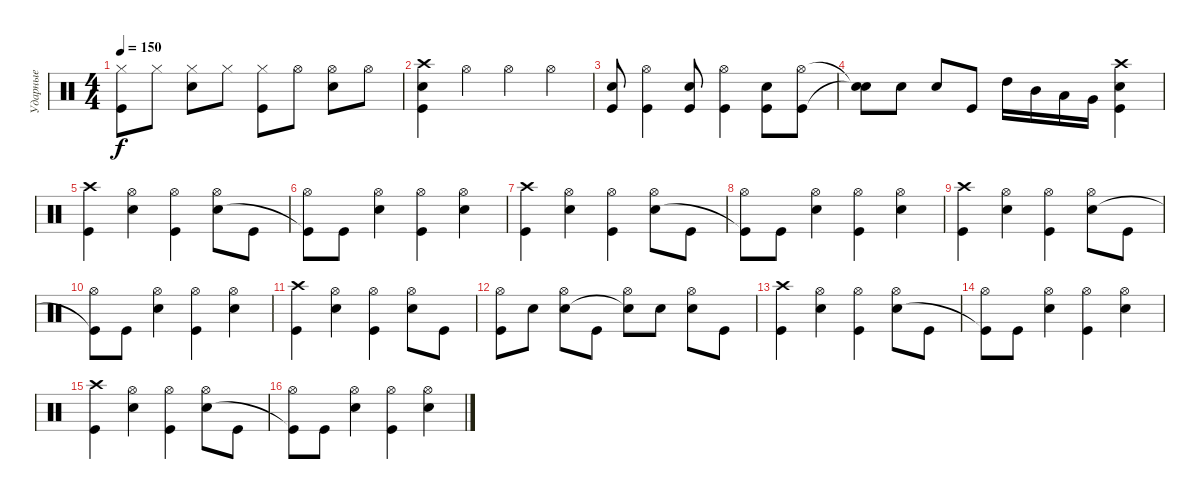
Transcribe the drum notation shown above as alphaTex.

\track ("Ударные" "Ударные") {instrument percussion}
\staff {score}
\articulation defaults
\ts (4 4)
\tempo 150
\clef neutral
\ks c
("Hi-Hat (closed)" "Kick (hit)").8{dy f} "Hi-Hat (closed)".8 ("Hi-Hat (closed)" "Snare (hit) 2").8 "Hi-Hat (closed)".8 ("Hi-Hat (closed)" "Kick (hit)").8 "Hi-Hat (open)".8 ("Hi-Hat (open)" "Snare (hit) 2").8 "Hi-Hat (open)".8 |
("Crash high (hit)" "Kick (hit)" "Snare (hit) 2").4 "Hi-Hat (open)".4 "Hi-Hat (open)".4 "Hi-Hat (open)".4 |
("Kick (hit)" "Snare (hit) 2").8 ("Hi-Hat (open)" "Kick (hit)").4 ("Kick (hit)" "Snare (hit) 2").8 ("Hi-Hat (open)" "Kick (hit)").4 ("Kick (hit)" "Snare (hit) 2").8 ("Hi-Hat (open)" "Kick (hit)").8 |
("Snare (hit)"{t} "Snare (hit)"{t}).8 "Snare (hit) 2".8 "Snare (hit) 2".8 "Kick (hit)".8 "High Tom (hit)".16 "Mid Tom (hit)".16 "Low Tom (hit)".16 "Very Low Tom (hit)".16 ("Crash high (hit)" "Kick (hit)" "Snare (hit) 2").4 |
("Crash high (hit)" "Kick (hit)").4 ("Hi-Hat (open)" "Snare (hit) 2").4 ("Hi-Hat (open)" "Kick (hit)").4 ("Hi-Hat (open)" "Snare (hit) 2").8 "Kick (hit)".8 |
("Hi-Hat (open)" "Kick (hit)"{t}).8 "Kick (hit)".8 ("Hi-Hat (open)" "Snare (hit) 2").4 ("Hi-Hat (open)" "Kick (hit)").4 ("Hi-Hat (open)" "Snare (hit) 2").4 |
("Crash high (hit)" "Kick (hit)").4 ("Hi-Hat (open)" "Snare (hit) 2").4 ("Hi-Hat (open)" "Kick (hit)").4 ("Hi-Hat (open)" "Snare (hit) 2").8 "Kick (hit)".8 |
("Hi-Hat (open)" "Kick (hit)"{t}).8 "Kick (hit)".8 ("Hi-Hat (open)" "Snare (hit) 2").4 ("Hi-Hat (open)" "Kick (hit)").4 ("Hi-Hat (open)" "Snare (hit) 2").4 |
("Crash high (hit)" "Kick (hit)").4 ("Hi-Hat (open)" "Snare (hit) 2").4 ("Hi-Hat (open)" "Kick (hit)").4 ("Hi-Hat (open)" "Snare (hit) 2").8 "Kick (hit)".8 |
("Hi-Hat (open)" "Kick (hit)"{t}).8 "Kick (hit)".8 ("Hi-Hat (open)" "Snare (hit) 2").4 ("Hi-Hat (open)" "Kick (hit)").4 ("Hi-Hat (open)" "Snare (hit) 2").4 |
("Crash high (hit)" "Kick (hit)").4 ("Hi-Hat (open)" "Snare (hit) 2").4 ("Hi-Hat (open)" "Kick (hit)").4 ("Hi-Hat (open)" "Snare (hit) 2").8 "Kick (hit)".8 |
("Hi-Hat (open)" "Kick (hit)").8 "Snare (hit) 2".8 ("Hi-Hat (open)" "Snare (hit) 2").8 "Kick (hit)".8 ("Hi-Hat (open)" "Snare (hit)"{t}).8 "Snare (hit) 2".8 ("Hi-Hat (open)" "Snare (hit) 2").8 "Kick (hit)".8 |
("Crash high (hit)" "Kick (hit)").4 ("Hi-Hat (open)" "Snare (hit) 2").4 ("Hi-Hat (open)" "Kick (hit)").4 ("Hi-Hat (open)" "Snare (hit) 2").8 "Kick (hit)".8 |
("Hi-Hat (open)" "Kick (hit)"{t}).8 "Kick (hit)".8 ("Hi-Hat (open)" "Snare (hit) 2").4 ("Hi-Hat (open)" "Kick (hit)").4 ("Hi-Hat (open)" "Snare (hit) 2").4 |
("Crash high (hit)" "Kick (hit)").4 ("Hi-Hat (open)" "Snare (hit) 2").4 ("Hi-Hat (open)" "Kick (hit)").4 ("Hi-Hat (open)" "Snare (hit) 2").8 "Kick (hit)".8 |
("Hi-Hat (open)" "Kick (hit)"{t}).8 "Kick (hit)".8 ("Hi-Hat (open)" "Snare (hit) 2").4 ("Hi-Hat (open)" "Kick (hit)").4 ("Hi-Hat (open)" "Snare (hit) 2").4
